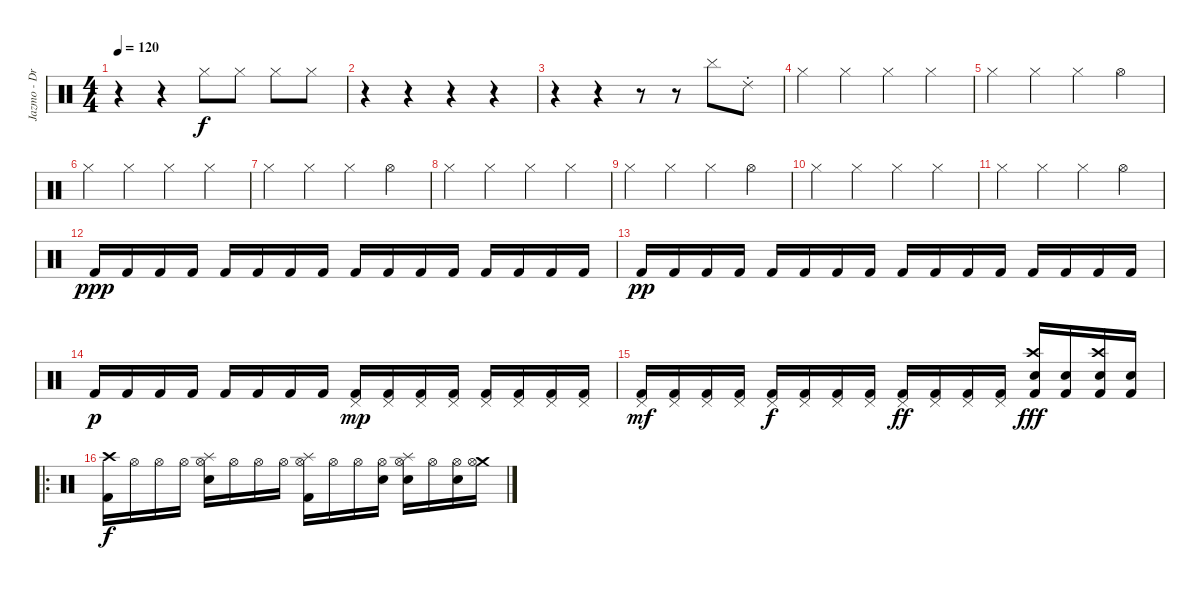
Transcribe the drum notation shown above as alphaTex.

\track ("Jazmo - Drums" "Jazmo - Dr") {instrument percussion}
\staff {score}
\articulation defaults
\ts (4 4)
\tempo 120
\clef neutral
\ks c
r.4{dy f} r.4 "Hi-Hat (closed)".8 "Hi-Hat (closed)".8 "Hi-Hat (closed)".8 "Hi-Hat (closed)".8 |
r.4 r.4 r.4 r.4 |
r.4 r.4 r.8 r.8 "Cymbal (hit)".8 "Ride (choke) 2".8 |
"Hi-Hat (closed)".4 "Hi-Hat (closed)".4 "Hi-Hat (closed)".4 "Hi-Hat (closed)".4 |
"Hi-Hat (closed)".4 "Hi-Hat (closed)".4 "Hi-Hat (closed)".4 "Hi-Hat (open)".4 |
"Hi-Hat (closed)".4 "Hi-Hat (closed)".4 "Hi-Hat (closed)".4 "Hi-Hat (closed)".4 |
"Hi-Hat (closed)".4 "Hi-Hat (closed)".4 "Hi-Hat (closed)".4 "Hi-Hat (open)".4 |
"Hi-Hat (closed)".4 "Hi-Hat (closed)".4 "Hi-Hat (closed)".4 "Hi-Hat (closed)".4 |
"Hi-Hat (closed)".4 "Hi-Hat (closed)".4 "Hi-Hat (closed)".4 "Hi-Hat (open)".4 |
"Hi-Hat (closed)".4 "Hi-Hat (closed)".4 "Hi-Hat (closed)".4 "Hi-Hat (closed)".4 |
"Hi-Hat (closed)".4 "Hi-Hat (closed)".4 "Hi-Hat (closed)".4 "Hi-Hat (open)".4 |
"Kick (hit) 2".16{dy ppp} "Kick (hit) 2".16 "Kick (hit) 2".16 "Kick (hit) 2".16 "Kick (hit) 2".16 "Kick (hit) 2".16 "Kick (hit) 2".16 "Kick (hit) 2".16 "Kick (hit) 2".16 "Kick (hit) 2".16 "Kick (hit) 2".16 "Kick (hit) 2".16 "Kick (hit) 2".16 "Kick (hit) 2".16 "Kick (hit) 2".16 "Kick (hit) 2".16 |
"Kick (hit) 2".16{dy pp} "Kick (hit) 2".16 "Kick (hit) 2".16 "Kick (hit) 2".16 "Kick (hit) 2".16 "Kick (hit) 2".16 "Kick (hit) 2".16 "Kick (hit) 2".16 "Kick (hit) 2".16 "Kick (hit) 2".16 "Kick (hit) 2".16 "Kick (hit) 2".16 "Kick (hit) 2".16 "Kick (hit) 2".16 "Kick (hit) 2".16 "Kick (hit) 2".16 |
"Kick (hit) 2".16{dy p} "Kick (hit) 2".16 "Kick (hit) 2".16 "Kick (hit) 2".16 "Kick (hit) 2".16 "Kick (hit) 2".16 "Kick (hit) 2".16 "Kick (hit) 2".16 ("Pedal Hi-Hat (hit)" "Kick (hit) 2").16{dy mp} ("Pedal Hi-Hat (hit)" "Kick (hit) 2").16 ("Pedal Hi-Hat (hit)" "Kick (hit) 2").16 ("Pedal Hi-Hat (hit)" "Kick (hit) 2").16 ("Pedal Hi-Hat (hit)" "Kick (hit) 2").16 ("Pedal Hi-Hat (hit)" "Kick (hit) 2").16 ("Pedal Hi-Hat (hit)" "Kick (hit) 2").16 ("Pedal Hi-Hat (hit)" "Kick (hit) 2").16 |
("Pedal Hi-Hat (hit)" "Kick (hit) 2").16{dy mf} ("Pedal Hi-Hat (hit)" "Kick (hit) 2").16 ("Pedal Hi-Hat (hit)" "Kick (hit) 2").16 ("Pedal Hi-Hat (hit)" "Kick (hit) 2").16 ("Pedal Hi-Hat (hit)" "Kick (hit) 2").16{dy f} ("Pedal Hi-Hat (hit)" "Kick (hit) 2").16 ("Pedal Hi-Hat (hit)" "Kick (hit) 2").16 ("Pedal Hi-Hat (hit)" "Kick (hit) 2").16 ("Pedal Hi-Hat (hit)" "Kick (hit) 2").16{dy ff} ("Pedal Hi-Hat (hit)" "Kick (hit) 2").16 ("Pedal Hi-Hat (hit)" "Kick (hit) 2").16 ("Pedal Hi-Hat (hit)" "Kick (hit) 2").16 ("Crash high (hit)" "Electric Snare (hit)" "Kick (hit) 2").16{dy fff} ("Electric Snare (hit)" "Kick (hit) 2").16 ("Crash high (hit)" "Electric Snare (hit)" "Kick (hit) 2").16 ("Electric Snare (hit)" "Kick (hit) 2").16 |
\ro
("Crash high (hit)" "Kick (hit) 2").16{dy f} "Hi-Hat (open)".16 "Hi-Hat (open)".16 "Hi-Hat (open)".16 ("Splash (hit)" "Hi-Hat (open)" "Electric Snare (hit)").16 "Hi-Hat (open)".16 "Hi-Hat (open)".16 "Hi-Hat (open)".16 ("Splash (hit)" "Hi-Hat (open)" "Kick (hit) 2").16 "Hi-Hat (open)".16 "Hi-Hat (open)".16 ("Hi-Hat (open)" "Electric Snare (hit)").16 ("Splash (hit)" "Hi-Hat (open)" "Electric Snare (hit)").16 "Hi-Hat (open)".16 ("Hi-Hat (open)" "Electric Snare (hit)").16 ("Crash medium (hit)" "Hi-Hat (open)").16
